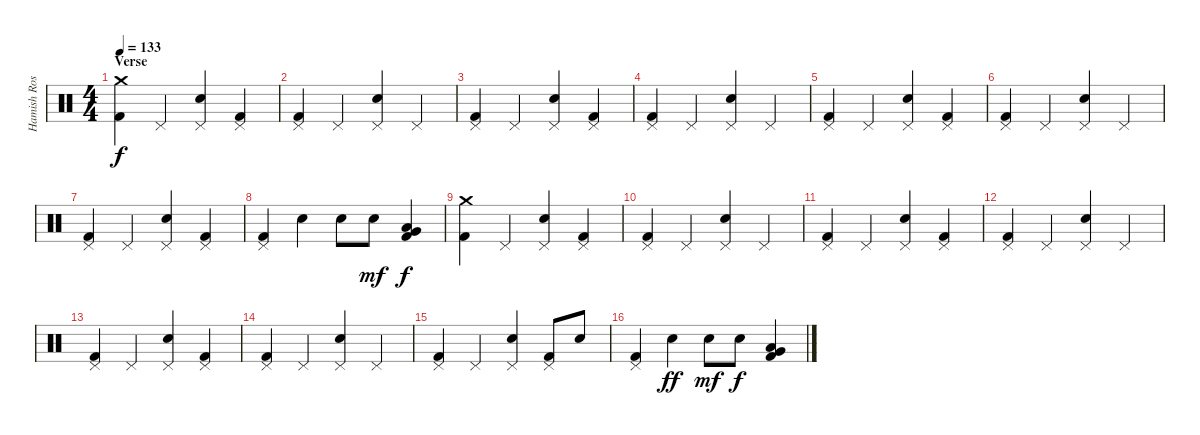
\track ("Hamish Rosser" "Hamish Ros") {instrument percussion}
\staff {score}
\articulation defaults
\ts (4 4)
\section ("" "Verse")
\tempo 133
\clef neutral
\ks c
("Crash medium (hit)" "Kick (hit) 2").4{dy f} "Pedal Hi-Hat (hit)".4 ("Pedal Hi-Hat (hit)" "Electric Snare (hit)").4 ("Pedal Hi-Hat (hit)" "Kick (hit) 2").4 |
("Pedal Hi-Hat (hit)" "Kick (hit) 2").4 "Pedal Hi-Hat (hit)".4 ("Pedal Hi-Hat (hit)" "Electric Snare (hit)").4 "Pedal Hi-Hat (hit)".4 |
("Pedal Hi-Hat (hit)" "Kick (hit) 2").4 "Pedal Hi-Hat (hit)".4 ("Pedal Hi-Hat (hit)" "Electric Snare (hit)").4 ("Pedal Hi-Hat (hit)" "Kick (hit) 2").4 |
("Pedal Hi-Hat (hit)" "Kick (hit) 2").4 "Pedal Hi-Hat (hit)".4 ("Pedal Hi-Hat (hit)" "Electric Snare (hit)").4 "Pedal Hi-Hat (hit)".4 |
("Pedal Hi-Hat (hit)" "Kick (hit) 2").4 "Pedal Hi-Hat (hit)".4 ("Pedal Hi-Hat (hit)" "Electric Snare (hit)").4 ("Pedal Hi-Hat (hit)" "Kick (hit) 2").4 |
("Pedal Hi-Hat (hit)" "Kick (hit) 2").4 "Pedal Hi-Hat (hit)".4 ("Pedal Hi-Hat (hit)" "Electric Snare (hit)").4 "Pedal Hi-Hat (hit)".4 |
("Pedal Hi-Hat (hit)" "Kick (hit) 2").4 "Pedal Hi-Hat (hit)".4 ("Pedal Hi-Hat (hit)" "Electric Snare (hit)").4 ("Pedal Hi-Hat (hit)" "Kick (hit) 2").4 |
("Pedal Hi-Hat (hit)" "Kick (hit) 2").4 "Electric Snare (hit)".4 "Electric Snare (hit)".8 "Electric Snare (hit)".8{dy mf} ("Low Tom (hit)" "Very Low Tom (hit)" "Kick (hit) 2").4{dy f} |
("Crash medium (hit)" "Kick (hit) 2").4 "Pedal Hi-Hat (hit)".4 ("Pedal Hi-Hat (hit)" "Electric Snare (hit)").4 ("Pedal Hi-Hat (hit)" "Kick (hit) 2").4 |
("Pedal Hi-Hat (hit)" "Kick (hit) 2").4 "Pedal Hi-Hat (hit)".4 ("Pedal Hi-Hat (hit)" "Electric Snare (hit)").4 "Pedal Hi-Hat (hit)".4 |
("Pedal Hi-Hat (hit)" "Kick (hit) 2").4 "Pedal Hi-Hat (hit)".4 ("Pedal Hi-Hat (hit)" "Electric Snare (hit)").4 ("Pedal Hi-Hat (hit)" "Kick (hit) 2").4 |
("Pedal Hi-Hat (hit)" "Kick (hit) 2").4 "Pedal Hi-Hat (hit)".4 ("Pedal Hi-Hat (hit)" "Electric Snare (hit)").4 "Pedal Hi-Hat (hit)".4 |
("Pedal Hi-Hat (hit)" "Kick (hit) 2").4 "Pedal Hi-Hat (hit)".4 ("Pedal Hi-Hat (hit)" "Electric Snare (hit)").4 ("Pedal Hi-Hat (hit)" "Kick (hit) 2").4 |
("Pedal Hi-Hat (hit)" "Kick (hit) 2").4 "Pedal Hi-Hat (hit)".4 ("Pedal Hi-Hat (hit)" "Electric Snare (hit)").4 "Pedal Hi-Hat (hit)".4 |
("Pedal Hi-Hat (hit)" "Kick (hit) 2").4 "Pedal Hi-Hat (hit)".4 ("Pedal Hi-Hat (hit)" "Electric Snare (hit)").4 ("Pedal Hi-Hat (hit)" "Kick (hit) 2").8 "Electric Snare (hit)".8 |
("Pedal Hi-Hat (hit)" "Kick (hit) 2").4 "Electric Snare (hit)".4{dy ff} "Electric Snare (hit)".8{dy mf} "Electric Snare (hit)".8{dy f} ("Low Tom (hit)" "Very Low Tom (hit)" "Kick (hit) 2").4
